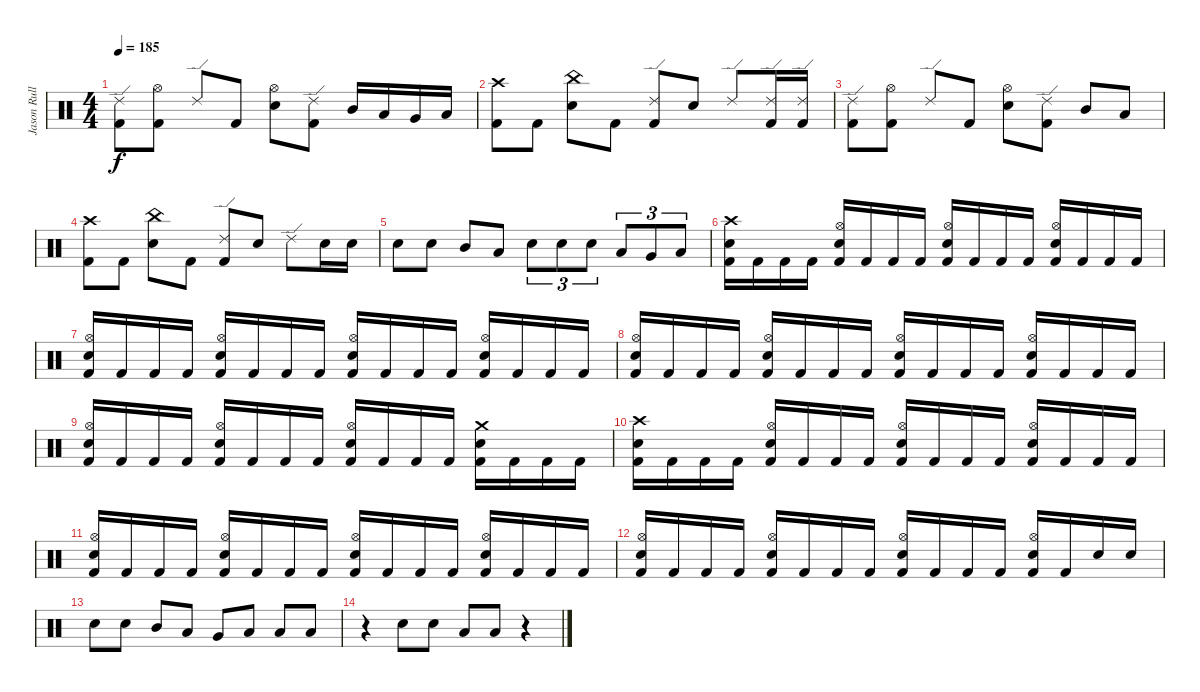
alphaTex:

\track ("Jason Rullo" "Jason Rull") {instrument percussion}
\staff {score}
\articulation defaults
\ts (4 4)
\tempo 185
\clef neutral
\ks c
("Ride (edge) 2" "Kick (hit) 2").8{dy f} ("Hi-Hat (open)" "Kick (hit) 2").8 "Ride (edge) 2".8 "Kick (hit) 2".8 ("Hi-Hat (open)" "Snare (hit) 2").8 ("Ride (edge) 2" "Kick (hit) 2").8 "Mid Tom (hit)".16 "Low Tom (hit)".16 "Very Low Tom (hit)".16 "Low Floor Tom (hit)".16 |
("Crash high (hit)" "Kick (hit) 2").8 "Kick (hit) 2".8 ("China (hit)" "Snare (hit) 2").8 "Kick (hit) 2".8 ("Ride (edge) 2" "Kick (hit) 2").8 "Snare (hit) 2".8 "Ride (edge) 2".8 ("Ride (edge) 2" "Kick (hit) 2").16 ("Ride (edge) 2" "Kick (hit) 2").16 |
("Ride (edge) 2" "Kick (hit) 2").8 ("Hi-Hat (open)" "Kick (hit) 2").8 "Ride (edge) 2".8 "Kick (hit) 2".8 ("Hi-Hat (open)" "Snare (hit) 2").8 ("Ride (edge) 2" "Kick (hit) 2").8 "Mid Tom (hit)".8 "Low Tom (hit)".8 |
("Crash high (hit)" "Kick (hit) 2").8 "Kick (hit) 2".8 ("China (hit)" "Snare (hit) 2").8 "Kick (hit) 2".8 ("Ride (edge) 2" "Kick (hit) 2").8 "Snare (hit) 2".8 "Ride (edge) 2".8 "Snare (hit) 2".16 "Snare (hit) 2".16 |
"Snare (hit) 2".8 "Snare (hit) 2".8 "Mid Tom (hit)".8 "Low Tom (hit)".8 "Snare (hit) 2".8{tu (3 2)} "Snare (hit) 2".8{tu (3 2)} "Snare (hit) 2".8{tu (3 2)} "Low Tom (hit)".8{tu (3 2)} "Very Low Tom (hit)".8{tu (3 2)} "Low Floor Tom (hit)".8{tu (3 2)} |
("Crash high (hit)" "Snare (hit) 2" "Kick (hit) 2").16 "Kick (hit) 2".16 "Kick (hit) 2".16 "Kick (hit) 2".16 ("Hi-Hat (open)" "Snare (hit) 2" "Kick (hit) 2").16 "Kick (hit) 2".16 "Kick (hit) 2".16 "Kick (hit) 2".16 ("Hi-Hat (open)" "Snare (hit) 2" "Kick (hit) 2").16 "Kick (hit) 2".16 "Kick (hit) 2".16 "Kick (hit) 2".16 ("Hi-Hat (open)" "Snare (hit) 2" "Kick (hit) 2").16 "Kick (hit) 2".16 "Kick (hit) 2".16 "Kick (hit) 2".16 |
("Hi-Hat (open)" "Snare (hit) 2" "Kick (hit) 2").16 "Kick (hit) 2".16 "Kick (hit) 2".16 "Kick (hit) 2".16 ("Hi-Hat (open)" "Snare (hit) 2" "Kick (hit) 2").16 "Kick (hit) 2".16 "Kick (hit) 2".16 "Kick (hit) 2".16 ("Hi-Hat (open)" "Snare (hit) 2" "Kick (hit) 2").16 "Kick (hit) 2".16 "Kick (hit) 2".16 "Kick (hit) 2".16 ("Hi-Hat (open)" "Snare (hit) 2" "Kick (hit) 2").16 "Kick (hit) 2".16 "Kick (hit) 2".16 "Kick (hit) 2".16 |
("Hi-Hat (open)" "Snare (hit) 2" "Kick (hit) 2").16 "Kick (hit) 2".16 "Kick (hit) 2".16 "Kick (hit) 2".16 ("Hi-Hat (open)" "Snare (hit) 2" "Kick (hit) 2").16 "Kick (hit) 2".16 "Kick (hit) 2".16 "Kick (hit) 2".16 ("Hi-Hat (open)" "Snare (hit) 2" "Kick (hit) 2").16 "Kick (hit) 2".16 "Kick (hit) 2".16 "Kick (hit) 2".16 ("Hi-Hat (open)" "Snare (hit) 2" "Kick (hit) 2").16 "Kick (hit) 2".16 "Kick (hit) 2".16 "Kick (hit) 2".16 |
("Hi-Hat (open)" "Snare (hit) 2" "Kick (hit) 2").16 "Kick (hit) 2".16 "Kick (hit) 2".16 "Kick (hit) 2".16 ("Hi-Hat (open)" "Snare (hit) 2" "Kick (hit) 2").16 "Kick (hit) 2".16 "Kick (hit) 2".16 "Kick (hit) 2".16 ("Hi-Hat (open)" "Snare (hit) 2" "Kick (hit) 2").16 "Kick (hit) 2".16 "Kick (hit) 2".16 "Kick (hit) 2".16 ("Crash medium (hit)" "Snare (hit) 2" "Kick (hit) 2").16 "Kick (hit) 2".16 "Kick (hit) 2".16 "Kick (hit) 2".16 |
("Crash high (hit)" "Snare (hit) 2" "Kick (hit) 2").16 "Kick (hit) 2".16 "Kick (hit) 2".16 "Kick (hit) 2".16 ("Hi-Hat (open)" "Snare (hit) 2" "Kick (hit) 2").16 "Kick (hit) 2".16 "Kick (hit) 2".16 "Kick (hit) 2".16 ("Hi-Hat (open)" "Snare (hit) 2" "Kick (hit) 2").16 "Kick (hit) 2".16 "Kick (hit) 2".16 "Kick (hit) 2".16 ("Hi-Hat (open)" "Snare (hit) 2" "Kick (hit) 2").16 "Kick (hit) 2".16 "Kick (hit) 2".16 "Kick (hit) 2".16 |
("Hi-Hat (open)" "Snare (hit) 2" "Kick (hit) 2").16 "Kick (hit) 2".16 "Kick (hit) 2".16 "Kick (hit) 2".16 ("Hi-Hat (open)" "Snare (hit) 2" "Kick (hit) 2").16 "Kick (hit) 2".16 "Kick (hit) 2".16 "Kick (hit) 2".16 ("Hi-Hat (open)" "Snare (hit) 2" "Kick (hit) 2").16 "Kick (hit) 2".16 "Kick (hit) 2".16 "Kick (hit) 2".16 ("Hi-Hat (open)" "Snare (hit) 2" "Kick (hit) 2").16 "Kick (hit) 2".16 "Kick (hit) 2".16 "Kick (hit) 2".16 |
("Hi-Hat (open)" "Snare (hit) 2" "Kick (hit) 2").16 "Kick (hit) 2".16 "Kick (hit) 2".16 "Kick (hit) 2".16 ("Hi-Hat (open)" "Snare (hit) 2" "Kick (hit) 2").16 "Kick (hit) 2".16 "Kick (hit) 2".16 "Kick (hit) 2".16 ("Hi-Hat (open)" "Snare (hit) 2" "Kick (hit) 2").16 "Kick (hit) 2".16 "Kick (hit) 2".16 "Kick (hit) 2".16 ("Hi-Hat (open)" "Snare (hit) 2" "Kick (hit) 2").16 "Kick (hit) 2".16 "Snare (hit) 2".16 "Snare (hit) 2".16 |
"Snare (hit) 2".8 "Snare (hit) 2".8 "Mid Tom (hit)".8 "Low Tom (hit)".8 "Very Low Tom (hit)".8 "Low Floor Tom (hit)".8 "Low Tom (hit)".8 "Low Tom (hit)".8 |
r.4 "Snare (hit) 2".8 "Snare (hit) 2".8 "Low Tom (hit)".8 "Low Tom (hit)".8 r.4
